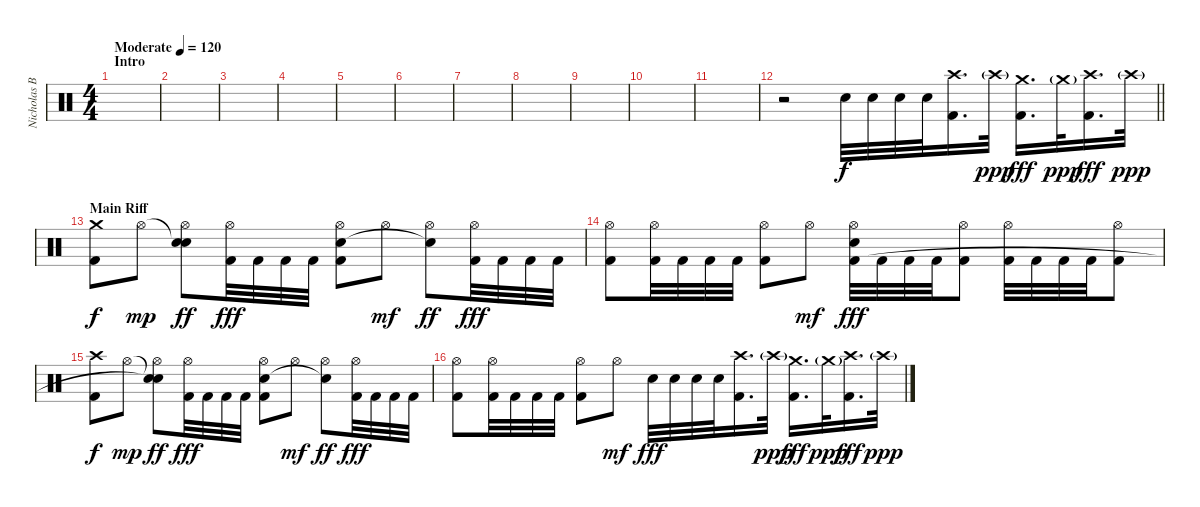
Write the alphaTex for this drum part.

\track ("Nicholas Barker" "Nicholas B") {instrument percussion}
\staff {score}
\articulation defaults
\ts (4 4)
\section ("" "Intro")
\tempo (120 "Moderate")
\clef neutral
\ks c
|
|
|
|
|
|
|
|
|
|
|
\barLineRight lightlight
r.2 "Snare (hit) 2".32 "Snare (hit) 2".32 "Snare (hit) 2".32 "Snare (hit) 2".32 ("Crash high (hit)" "Kick (hit) 2").16{d} "Crash high (hit)"{g}.32{dy ppp} ("Crash medium (hit)" "Kick (hit) 2").16{d dy fff} "Crash medium (hit)"{g}.32{dy ppp} ("Crash high (hit)" "Kick (hit) 2").16{d dy fff} "Crash high (hit)"{g}.32{dy ppp} |
\section ("" "Main Riff")
("Crash medium (hit)" "Kick (hit) 2").8{dy f} "Hi-Hat (open)".8{dy mp} ("Snare (hit)"{t} "Hi-Hat (open)" "Snare (hit)").8{dy ff} ("Hi-Hat (open)" "Kick (hit) 2").32{dy fff} "Kick (hit) 2".32 "Kick (hit) 2".32 "Kick (hit) 2".32 ("Hi-Hat (open)" "Snare (hit) 2" "Kick (hit) 2").8 "Hi-Hat (open)".8{dy mf} ("Hi-Hat (open)" "Snare (hit)"{t}).8{dy ff} ("Hi-Hat (open)" "Kick (hit) 2").32{dy fff} "Kick (hit) 2".32 "Kick (hit) 2".32 "Kick (hit) 2".32 |
("Hi-Hat (open)" "Kick (hit) 2").8 ("Hi-Hat (open)" "Kick (hit) 2").32 "Kick (hit) 2".32 "Kick (hit) 2".32 "Kick (hit) 2".32 ("Hi-Hat (open)" "Kick (hit) 2").8 "Hi-Hat (open)".8{dy mf} ("Hi-Hat (open)" "Snare (hit) 2" "Kick (hit) 2").32{dy fff} "Kick (hit) 2".32 "Kick (hit) 2".32 "Kick (hit) 2".32 ("Hi-Hat (open)" "Kick (hit) 2").8 ("Hi-Hat (open)" "Kick (hit) 2").32 "Kick (hit) 2".32 "Kick (hit) 2".32 "Kick (hit) 2".32 ("Hi-Hat (open)" "Kick (hit) 2").8 |
("Crash high (hit)" "Kick (hit) 2").8{dy f} "Hi-Hat (open)".8{dy mp} ("Snare (hit)"{t} "Hi-Hat (open)" "Snare (hit)"{t}).8{dy ff} ("Hi-Hat (open)" "Kick (hit) 2").32{dy fff} "Kick (hit) 2".32 "Kick (hit) 2".32 "Kick (hit) 2".32 ("Hi-Hat (open)" "Snare (hit) 2" "Kick (hit) 2").8 "Hi-Hat (open)".8{dy mf} ("Hi-Hat (open)" "Snare (hit)"{t}).8{dy ff} ("Hi-Hat (open)" "Kick (hit) 2").32{dy fff} "Kick (hit) 2".32 "Kick (hit) 2".32 "Kick (hit) 2".32 |
("Hi-Hat (open)" "Kick (hit) 2").8 ("Hi-Hat (open)" "Kick (hit) 2").32 "Kick (hit) 2".32 "Kick (hit) 2".32 "Kick (hit) 2".32 ("Hi-Hat (open)" "Kick (hit) 2").8 "Hi-Hat (open)".8{dy mf} "Snare (hit) 2".32{dy fff} "Snare (hit) 2".32 "Snare (hit) 2".32 "Snare (hit) 2".32 ("Crash high (hit)" "Kick (hit) 2").16{d} "Crash high (hit)"{g}.32{dy ppp} ("Crash medium (hit)" "Kick (hit) 2").16{d dy fff} "Crash medium (hit)"{g}.32{dy ppp} ("Crash high (hit)" "Kick (hit) 2").16{d dy fff} "Crash high (hit)"{g}.32{dy ppp}
